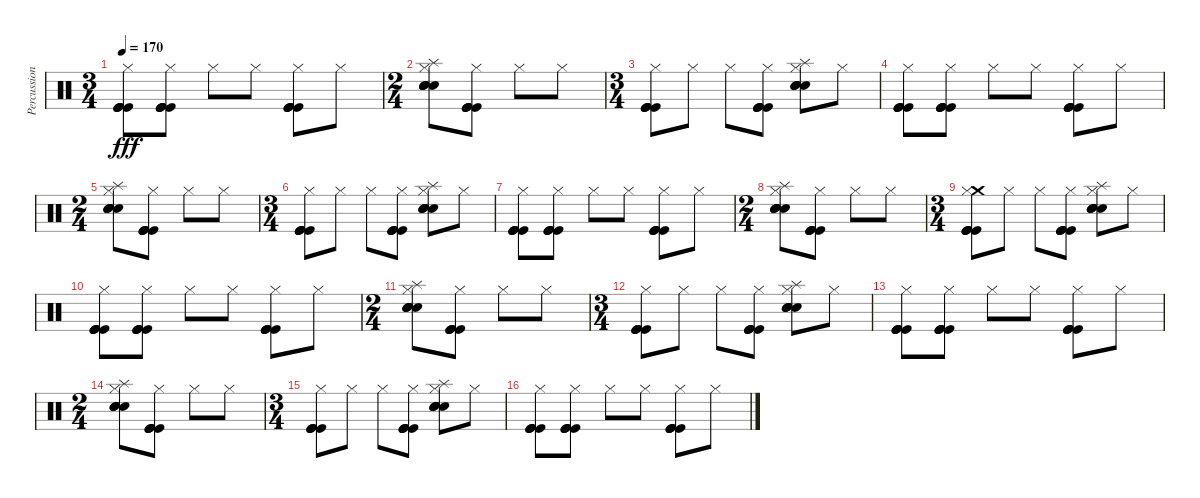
\track ("Percussion" "Percussion") {instrument percussion}
\staff {score}
\articulation defaults
\ts (3 4)
\tempo 170
\clef neutral
\ks c
("Hi-Hat (closed)" "Kick (hit)" "Kick (hit)" "Kick (hit)" "Kick (hit)").8{dy fff} ("Hi-Hat (closed)" "Kick (hit)" "Kick (hit)" "Kick (hit)" "Kick (hit)").8 "Hi-Hat (closed)".8 "Hi-Hat (closed)".8 ("Hi-Hat (closed)" "Kick (hit)" "Kick (hit)" "Kick (hit)" "Kick (hit)").8 "Hi-Hat (closed)".8 |
\ts (2 4)
("Splash (hit)" "Hi-Hat (closed)" "Hand Clap (hit)" "Hand Clap (hit)" "Hand Clap (hit)" "Hand Clap (hit)").8 ("Hi-Hat (closed)" "Kick (hit)" "Kick (hit)" "Kick (hit)" "Kick (hit)").8 "Hi-Hat (closed)".8 "Hi-Hat (closed)".8 |
\ts (3 4)
("Hi-Hat (closed)" "Kick (hit)" "Kick (hit)" "Kick (hit)" "Kick (hit)").8 "Hi-Hat (closed)".8 "Hi-Hat (closed)".8 ("Hi-Hat (closed)" "Kick (hit)" "Kick (hit)" "Kick (hit)" "Kick (hit)").8 ("Splash (hit)" "Hi-Hat (closed)" "Hand Clap (hit)" "Hand Clap (hit)" "Hand Clap (hit)" "Hand Clap (hit)").8 "Hi-Hat (closed)".8 |
("Hi-Hat (closed)" "Kick (hit)" "Kick (hit)" "Kick (hit)" "Kick (hit)").8 ("Hi-Hat (closed)" "Kick (hit)" "Kick (hit)" "Kick (hit)" "Kick (hit)").8 "Hi-Hat (closed)".8 "Hi-Hat (closed)".8 ("Hi-Hat (closed)" "Kick (hit)" "Kick (hit)" "Kick (hit)" "Kick (hit)").8 "Hi-Hat (closed)".8 |
\ts (2 4)
("Splash (hit)" "Hi-Hat (closed)" "Hand Clap (hit)" "Hand Clap (hit)" "Hand Clap (hit)" "Hand Clap (hit)").8 ("Hi-Hat (closed)" "Kick (hit)" "Kick (hit)" "Kick (hit)" "Kick (hit)").8 "Hi-Hat (closed)".8 "Hi-Hat (closed)".8 |
\ts (3 4)
("Hi-Hat (closed)" "Kick (hit)" "Kick (hit)" "Kick (hit)" "Kick (hit)").8 "Hi-Hat (closed)".8 "Hi-Hat (closed)".8 ("Hi-Hat (closed)" "Kick (hit)" "Kick (hit)" "Kick (hit)" "Kick (hit)").8 ("Splash (hit)" "Hi-Hat (closed)" "Hand Clap (hit)" "Hand Clap (hit)" "Hand Clap (hit)" "Hand Clap (hit)").8 "Hi-Hat (closed)".8 |
("Hi-Hat (closed)" "Kick (hit)" "Kick (hit)" "Kick (hit)" "Kick (hit)").8 ("Hi-Hat (closed)" "Kick (hit)" "Kick (hit)" "Kick (hit)" "Kick (hit)").8 "Hi-Hat (closed)".8 "Hi-Hat (closed)".8 ("Hi-Hat (closed)" "Kick (hit)" "Kick (hit)" "Kick (hit)" "Kick (hit)").8 "Hi-Hat (closed)".8 |
\ts (2 4)
("Splash (hit)" "Hi-Hat (closed)" "Hand Clap (hit)" "Hand Clap (hit)" "Hand Clap (hit)" "Hand Clap (hit)").8 ("Hi-Hat (closed)" "Kick (hit)" "Kick (hit)" "Kick (hit)" "Kick (hit)").8 "Hi-Hat (closed)".8 "Hi-Hat (closed)".8 |
\ts (3 4)
("Crash medium (hit)" "Hi-Hat (closed)" "Kick (hit)" "Kick (hit)" "Kick (hit)" "Kick (hit)").8 "Hi-Hat (closed)".8 "Hi-Hat (closed)".8 ("Hi-Hat (closed)" "Kick (hit)" "Kick (hit)" "Kick (hit)" "Kick (hit)").8 ("Splash (hit)" "Hi-Hat (closed)" "Hand Clap (hit)" "Hand Clap (hit)" "Hand Clap (hit)" "Hand Clap (hit)").8 "Hi-Hat (closed)".8 |
("Hi-Hat (closed)" "Kick (hit)" "Kick (hit)" "Kick (hit)" "Kick (hit)").8 ("Hi-Hat (closed)" "Kick (hit)" "Kick (hit)" "Kick (hit)" "Kick (hit)").8 "Hi-Hat (closed)".8 "Hi-Hat (closed)".8 ("Hi-Hat (closed)" "Kick (hit)" "Kick (hit)" "Kick (hit)" "Kick (hit)").8 "Hi-Hat (closed)".8 |
\ts (2 4)
("Splash (hit)" "Hi-Hat (closed)" "Hand Clap (hit)" "Hand Clap (hit)" "Hand Clap (hit)" "Hand Clap (hit)").8 ("Hi-Hat (closed)" "Kick (hit)" "Kick (hit)" "Kick (hit)" "Kick (hit)").8 "Hi-Hat (closed)".8 "Hi-Hat (closed)".8 |
\ts (3 4)
("Hi-Hat (closed)" "Kick (hit)" "Kick (hit)" "Kick (hit)" "Kick (hit)").8 "Hi-Hat (closed)".8 "Hi-Hat (closed)".8 ("Hi-Hat (closed)" "Kick (hit)" "Kick (hit)" "Kick (hit)" "Kick (hit)").8 ("Splash (hit)" "Hi-Hat (closed)" "Hand Clap (hit)" "Hand Clap (hit)" "Hand Clap (hit)" "Hand Clap (hit)").8 "Hi-Hat (closed)".8 |
("Hi-Hat (closed)" "Kick (hit)" "Kick (hit)" "Kick (hit)" "Kick (hit)").8 ("Hi-Hat (closed)" "Kick (hit)" "Kick (hit)" "Kick (hit)" "Kick (hit)").8 "Hi-Hat (closed)".8 "Hi-Hat (closed)".8 ("Hi-Hat (closed)" "Kick (hit)" "Kick (hit)" "Kick (hit)" "Kick (hit)").8 "Hi-Hat (closed)".8 |
\ts (2 4)
("Splash (hit)" "Hi-Hat (closed)" "Hand Clap (hit)" "Hand Clap (hit)" "Hand Clap (hit)" "Hand Clap (hit)").8 ("Hi-Hat (closed)" "Kick (hit)" "Kick (hit)" "Kick (hit)" "Kick (hit)").8 "Hi-Hat (closed)".8 "Hi-Hat (closed)".8 |
\ts (3 4)
("Hi-Hat (closed)" "Kick (hit)" "Kick (hit)" "Kick (hit)" "Kick (hit)").8 "Hi-Hat (closed)".8 "Hi-Hat (closed)".8 ("Hi-Hat (closed)" "Kick (hit)" "Kick (hit)" "Kick (hit)" "Kick (hit)").8 ("Splash (hit)" "Hi-Hat (closed)" "Hand Clap (hit)" "Hand Clap (hit)" "Hand Clap (hit)" "Hand Clap (hit)").8 "Hi-Hat (closed)".8 |
("Hi-Hat (closed)" "Kick (hit)" "Kick (hit)" "Kick (hit)" "Kick (hit)").8 ("Hi-Hat (closed)" "Kick (hit)" "Kick (hit)" "Kick (hit)" "Kick (hit)").8 "Hi-Hat (closed)".8 "Hi-Hat (closed)".8 ("Hi-Hat (closed)" "Kick (hit)" "Kick (hit)" "Kick (hit)" "Kick (hit)").8 "Hi-Hat (closed)".8
